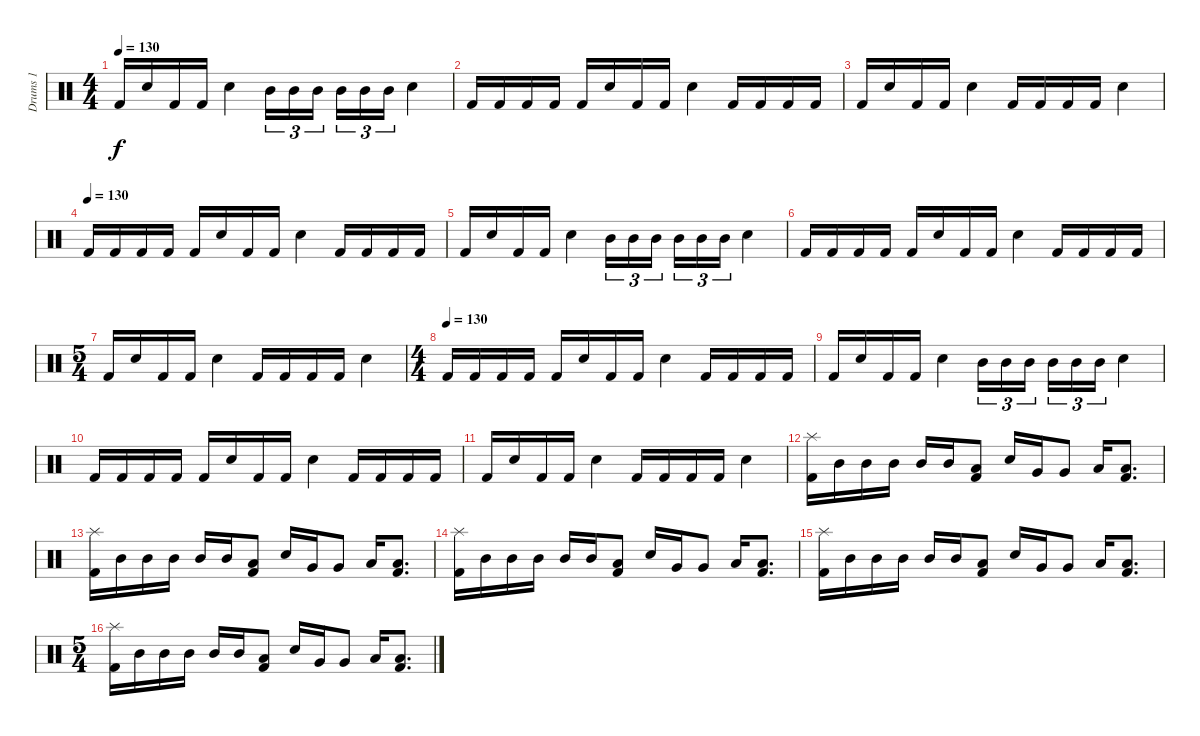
\track ("Drums 1" "Drums 1") {instrument percussion}
\staff {score}
\articulation defaults
\ts (4 4)
\tempo 130
\clef neutral
\ks c "Kick (hit) 2".16{dy f} "Snare (hit) 2".16 "Kick (hit) 2".16 "Kick (hit) 2".16 "Snare (hit) 2".4 "Mid Tom (hit)".16{tu (3 2)} "Mid Tom (hit)".16{tu (3 2)} "Mid Tom (hit)".16{tu (3 2)} "Mid Tom (hit)".16{tu (3 2)} "Mid Tom (hit)".16{tu (3 2)} "Mid Tom (hit)".16{tu (3 2)} "Snare (hit) 2".4
|
"Kick (hit) 2".16 "Kick (hit) 2".16 "Kick (hit) 2".16 "Kick (hit) 2".16 "Kick (hit) 2".16 "Snare (hit) 2".16 "Kick (hit) 2".16 "Kick (hit) 2".16 "Snare (hit) 2".4 "Kick (hit) 2".16 "Kick (hit) 2".16 "Kick (hit) 2".16 "Kick (hit) 2".16 |
"Kick (hit) 2".16 "Snare (hit) 2".16 "Kick (hit) 2".16 "Kick (hit) 2".16 "Snare (hit) 2".4 "Kick (hit) 2".16 "Kick (hit) 2".16 "Kick (hit) 2".16 "Kick (hit) 2".16 "Snare (hit) 2".4 |
\tempo (130)
"Kick (hit) 2".16 "Kick (hit) 2".16 "Kick (hit) 2".16 "Kick (hit) 2".16 "Kick (hit) 2".16 "Snare (hit) 2".16 "Kick (hit) 2".16 "Kick (hit) 2".16 "Snare (hit) 2".4 "Kick (hit) 2".16 "Kick (hit) 2".16 "Kick (hit) 2".16 "Kick (hit) 2".16 |
"Kick (hit) 2".16 "Snare (hit) 2".16 "Kick (hit) 2".16 "Kick (hit) 2".16 "Snare (hit) 2".4 "Mid Tom (hit)".16{tu (3 2)} "Mid Tom (hit)".16{tu (3 2)} "Mid Tom (hit)".16{tu (3 2)} "Mid Tom (hit)".16{tu (3 2)} "Mid Tom (hit)".16{tu (3 2)} "Mid Tom (hit)".16{tu (3 2)} "Snare (hit) 2".4 |
"Kick (hit) 2".16 "Kick (hit) 2".16 "Kick (hit) 2".16 "Kick (hit) 2".16 "Kick (hit) 2".16 "Snare (hit) 2".16 "Kick (hit) 2".16 "Kick (hit) 2".16 "Snare (hit) 2".4 "Kick (hit) 2".16 "Kick (hit) 2".16 "Kick (hit) 2".16 "Kick (hit) 2".16 |
\ts (5 4)
"Kick (hit) 2".16 "Snare (hit) 2".16 "Kick (hit) 2".16 "Kick (hit) 2".16 "Snare (hit) 2".4 "Kick (hit) 2".16 "Kick (hit) 2".16 "Kick (hit) 2".16 "Kick (hit) 2".16 "Snare (hit) 2".4 |
\ts (4 4)
\tempo (130)
"Kick (hit) 2".16 "Kick (hit) 2".16 "Kick (hit) 2".16 "Kick (hit) 2".16 "Kick (hit) 2".16 "Snare (hit) 2".16 "Kick (hit) 2".16 "Kick (hit) 2".16 "Snare (hit) 2".4 "Kick (hit) 2".16 "Kick (hit) 2".16 "Kick (hit) 2".16 "Kick (hit) 2".16 |
"Kick (hit) 2".16 "Snare (hit) 2".16 "Kick (hit) 2".16 "Kick (hit) 2".16 "Snare (hit) 2".4 "Mid Tom (hit)".16{tu (3 2)} "Mid Tom (hit)".16{tu (3 2)} "Mid Tom (hit)".16{tu (3 2)} "Mid Tom (hit)".16{tu (3 2)} "Mid Tom (hit)".16{tu (3 2)} "Mid Tom (hit)".16{tu (3 2)} "Snare (hit) 2".4 |
"Kick (hit) 2".16 "Kick (hit) 2".16 "Kick (hit) 2".16 "Kick (hit) 2".16 "Kick (hit) 2".16 "Snare (hit) 2".16 "Kick (hit) 2".16 "Kick (hit) 2".16 "Snare (hit) 2".4 "Kick (hit) 2".16 "Kick (hit) 2".16 "Kick (hit) 2".16 "Kick (hit) 2".16 |
"Kick (hit) 2".16 "Snare (hit) 2".16 "Kick (hit) 2".16 "Kick (hit) 2".16 "Snare (hit) 2".4 "Kick (hit) 2".16 "Kick (hit) 2".16 "Kick (hit) 2".16 "Kick (hit) 2".16 "Snare (hit) 2".4 |
("Splash (hit)" "Kick (hit) 2").16 "Mid Tom (hit)".16 "Mid Tom (hit)".16 "Mid Tom (hit)".16 "Mid Tom (hit)".16 "Mid Tom (hit)".16 ("Low Tom (hit)" "Kick (hit) 2").8 "Snare (hit) 2".16 "Very Low Tom (hit)".16 "Very Low Tom (hit)".8 "Low Floor Tom (hit)".16 ("Low Floor Tom (hit)" "Kick (hit) 2").8{d} |
("Splash (hit)" "Kick (hit) 2").16 "Mid Tom (hit)".16 "Mid Tom (hit)".16 "Mid Tom (hit)".16 "Mid Tom (hit)".16 "Mid Tom (hit)".16 ("Low Tom (hit)" "Kick (hit) 2").8 "Snare (hit) 2".16 "Very Low Tom (hit)".16 "Very Low Tom (hit)".8 "Low Floor Tom (hit)".16 ("Low Floor Tom (hit)" "Kick (hit) 2").8{d} |
("Splash (hit)" "Kick (hit) 2").16 "Mid Tom (hit)".16 "Mid Tom (hit)".16 "Mid Tom (hit)".16 "Mid Tom (hit)".16 "Mid Tom (hit)".16 ("Low Tom (hit)" "Kick (hit) 2").8 "Snare (hit) 2".16 "Very Low Tom (hit)".16 "Very Low Tom (hit)".8 "Low Floor Tom (hit)".16 ("Low Floor Tom (hit)" "Kick (hit) 2").8{d} |
("Splash (hit)" "Kick (hit) 2").16 "Mid Tom (hit)".16 "Mid Tom (hit)".16 "Mid Tom (hit)".16 "Mid Tom (hit)".16 "Mid Tom (hit)".16 ("Low Tom (hit)" "Kick (hit) 2").8 "Snare (hit) 2".16 "Very Low Tom (hit)".16 "Very Low Tom (hit)".8 "Low Floor Tom (hit)".16 ("Low Floor Tom (hit)" "Kick (hit) 2").8{d} |
\ts (5 4)
("Splash (hit)" "Kick (hit) 2").16 "Mid Tom (hit)".16 "Mid Tom (hit)".16 "Mid Tom (hit)".16 "Mid Tom (hit)".16 "Mid Tom (hit)".16 ("Low Tom (hit)" "Kick (hit) 2").8 "Snare (hit) 2".16 "Very Low Tom (hit)".16 "Very Low Tom (hit)".8 "Low Floor Tom (hit)".16 ("Low Floor Tom (hit)" "Kick (hit) 2").8{d}
